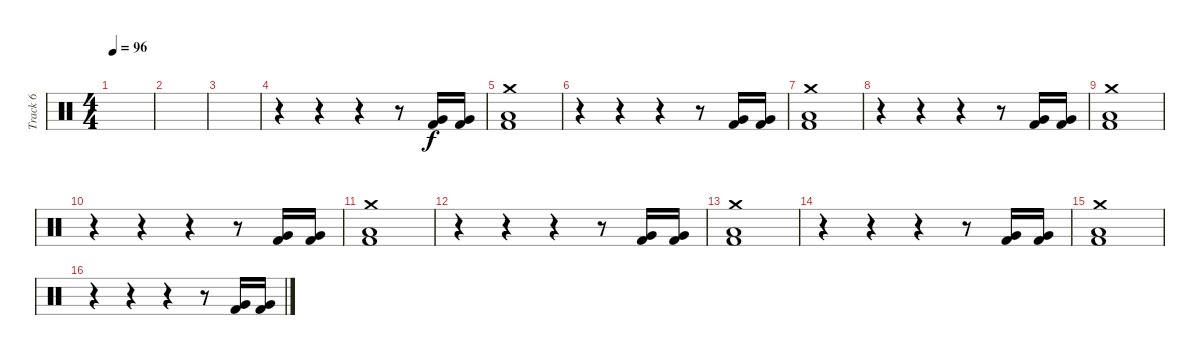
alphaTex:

\track ("Track 6" "Track 6") {instrument percussion}
\staff {score}
\articulation defaults
\ts (4 4)
\tempo 96
\clef neutral
\ks c
|
|
|
r.4 r.4 r.4 r.8 ("Very Low Tom (hit)" "Kick (hit) 2").16 ("Very Low Tom (hit)" "Kick (hit) 2").16 |
("Crash medium (hit)" "Low Floor Tom (hit)" "Kick (hit) 2").1 |
r.4 r.4 r.4 r.8 ("Very Low Tom (hit)" "Kick (hit) 2").16 ("Very Low Tom (hit)" "Kick (hit) 2").16 |
("Crash medium (hit)" "Low Floor Tom (hit)" "Kick (hit) 2").1 |
r.4 r.4 r.4 r.8 ("Very Low Tom (hit)" "Kick (hit) 2").16 ("Very Low Tom (hit)" "Kick (hit) 2").16 |
("Crash medium (hit)" "Low Floor Tom (hit)" "Kick (hit) 2").1 |
r.4 r.4 r.4 r.8 ("Very Low Tom (hit)" "Kick (hit) 2").16 ("Very Low Tom (hit)" "Kick (hit) 2").16 |
("Crash medium (hit)" "Low Floor Tom (hit)" "Kick (hit) 2").1 |
r.4 r.4 r.4 r.8 ("Very Low Tom (hit)" "Kick (hit) 2").16 ("Very Low Tom (hit)" "Kick (hit) 2").16 |
("Crash medium (hit)" "Low Floor Tom (hit)" "Kick (hit) 2").1 |
r.4 r.4 r.4 r.8 ("Very Low Tom (hit)" "Kick (hit) 2").16 ("Very Low Tom (hit)" "Kick (hit) 2").16 |
("Crash medium (hit)" "Low Floor Tom (hit)" "Kick (hit) 2").1 |
r.4 r.4 r.4 r.8 ("Very Low Tom (hit)" "Kick (hit) 2").16 ("Very Low Tom (hit)" "Kick (hit) 2").16
